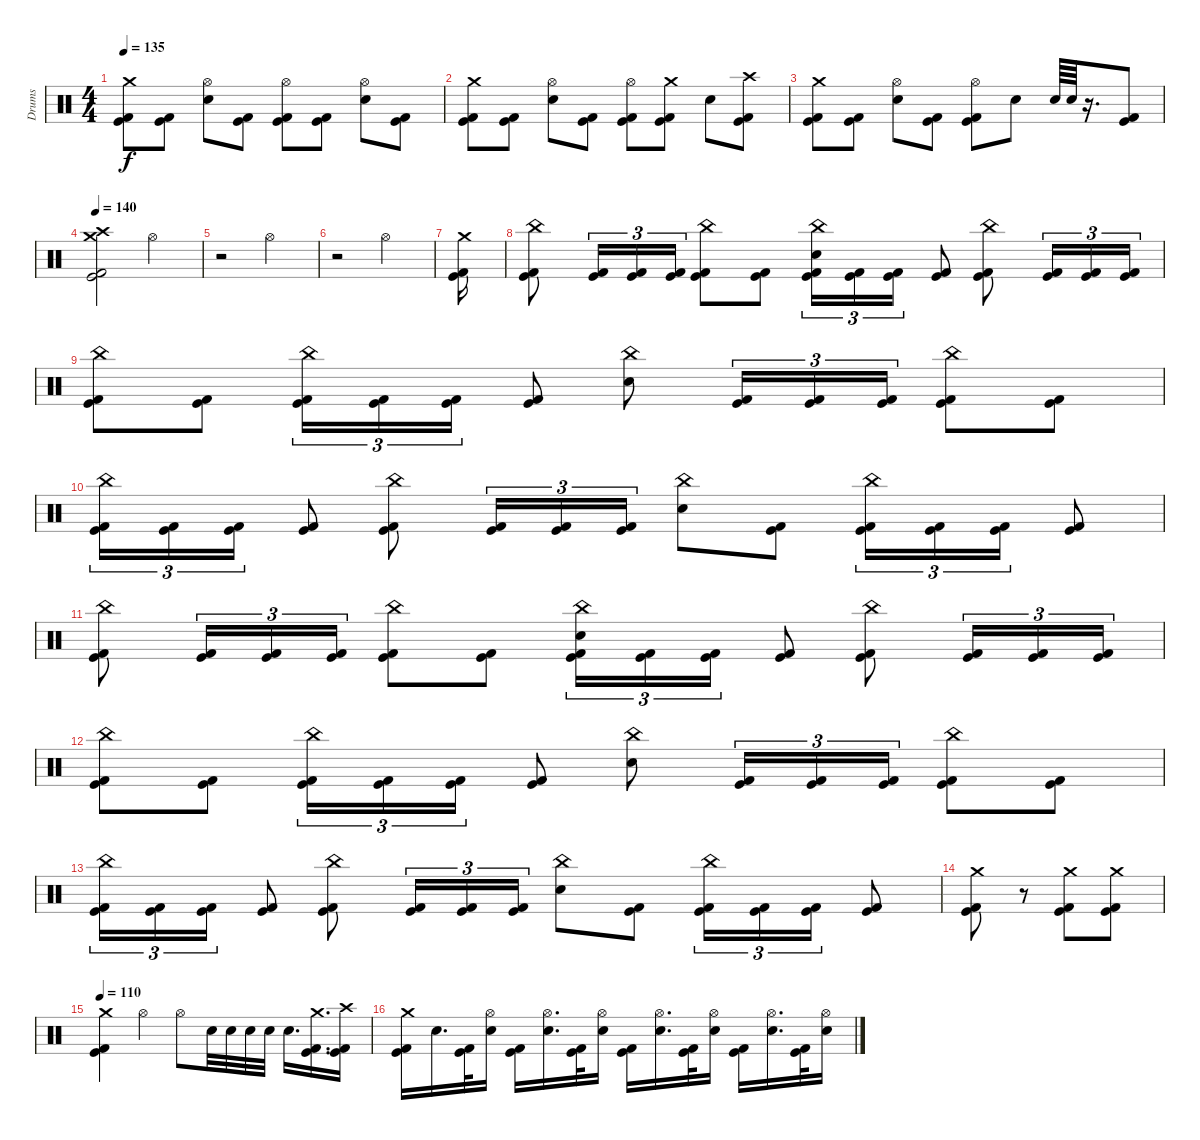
\track ("Drums" "Drums") {instrument percussion}
\staff {score}
\articulation defaults
\ts (4 4)
\tempo 135
\clef neutral
\ks c
("Crash medium (hit)" "Kick (hit)" "Kick (hit) 2").8{dy f} ("Kick (hit)" "Kick (hit) 2").8 ("Hi-Hat (open)" "Electric Snare (hit)").8 ("Kick (hit)" "Kick (hit) 2").8 ("Hi-Hat (open)" "Kick (hit)" "Kick (hit) 2").8 ("Kick (hit)" "Kick (hit) 2").8 ("Hi-Hat (open)" "Electric Snare (hit)").8 ("Kick (hit)" "Kick (hit) 2").8 |
("Crash medium (hit)" "Kick (hit)" "Kick (hit) 2").8 ("Kick (hit)" "Kick (hit) 2").8 ("Hi-Hat (open)" "Electric Snare (hit)").8 ("Kick (hit)" "Kick (hit) 2").8 ("Hi-Hat (open)" "Kick (hit)" "Kick (hit) 2").8 ("Crash medium (hit)" "Kick (hit)" "Kick (hit) 2").8 "Electric Snare (hit)".8 ("Crash high (hit)" "Kick (hit)" "Kick (hit) 2").8 |
("Crash medium (hit)" "Kick (hit)" "Kick (hit) 2").8 ("Kick (hit)" "Kick (hit) 2").8 ("Hi-Hat (open)" "Electric Snare (hit)").8 ("Kick (hit)" "Kick (hit) 2").8 ("Hi-Hat (open)" "Kick (hit)" "Kick (hit) 2").8 "Electric Snare (hit)".8 "Electric Snare (hit)".64 "Electric Snare (hit)".64 r.16{d} ("Kick (hit)" "Kick (hit) 2").8 |
\tempo 140
("Crash high (hit)" "Crash medium (hit)" "Kick (hit)" "Kick (hit) 2").2 "Hi-Hat (open)".2 |
r.2 "Hi-Hat (open)".2 |
r.2 "Hi-Hat (open)".2 |
("Crash medium (hit)" "Kick (hit)" "Kick (hit) 2").16 |
("China (hit)" "Kick (hit)" "Kick (hit) 2").8 ("Kick (hit)" "Kick (hit) 2").16{tu (3 2)} ("Kick (hit)" "Kick (hit) 2").16{tu (3 2)} ("Kick (hit)" "Kick (hit) 2").16{tu (3 2)} ("China (hit)" "Kick (hit)" "Kick (hit) 2").8 ("Kick (hit)" "Kick (hit) 2").8 ("China (hit)" "Electric Snare (hit)" "Kick (hit)" "Kick (hit) 2").16{tu (3 2)} ("Kick (hit)" "Kick (hit) 2").16{tu (3 2)} ("Kick (hit)" "Kick (hit) 2").16{tu (3 2)} ("Kick (hit)" "Kick (hit) 2").8 ("China (hit)" "Kick (hit)" "Kick (hit) 2").8 ("Kick (hit)" "Kick (hit) 2").16{tu (3 2)} ("Kick (hit)" "Kick (hit) 2").16{tu (3 2)} ("Kick (hit)" "Kick (hit) 2").16{tu (3 2)} |
("China (hit)" "Kick (hit)" "Kick (hit) 2").8 ("Kick (hit)" "Kick (hit) 2").8 ("China (hit)" "Kick (hit)" "Kick (hit) 2").16{tu (3 2)} ("Kick (hit)" "Kick (hit) 2").16{tu (3 2)} ("Kick (hit)" "Kick (hit) 2").16{tu (3 2)} ("Kick (hit)" "Kick (hit) 2").8 ("China (hit)" "Electric Snare (hit)").8 ("Kick (hit)" "Kick (hit) 2").16{tu (3 2)} ("Kick (hit)" "Kick (hit) 2").16{tu (3 2)} ("Kick (hit)" "Kick (hit) 2").16{tu (3 2)} ("China (hit)" "Kick (hit)" "Kick (hit) 2").8 ("Kick (hit)" "Kick (hit) 2").8 |
("China (hit)" "Kick (hit)" "Kick (hit) 2").16{tu (3 2)} ("Kick (hit)" "Kick (hit) 2").16{tu (3 2)} ("Kick (hit)" "Kick (hit) 2").16{tu (3 2)} ("Kick (hit)" "Kick (hit) 2").8 ("China (hit)" "Kick (hit)" "Kick (hit) 2").8 ("Kick (hit)" "Kick (hit) 2").16{tu (3 2)} ("Kick (hit)" "Kick (hit) 2").16{tu (3 2)} ("Kick (hit)" "Kick (hit) 2").16{tu (3 2)} ("China (hit)" "Electric Snare (hit)").8 ("Kick (hit)" "Kick (hit) 2").8 ("China (hit)" "Kick (hit)" "Kick (hit) 2").16{tu (3 2)} ("Kick (hit)" "Kick (hit) 2").16{tu (3 2)} ("Kick (hit)" "Kick (hit) 2").16{tu (3 2)} ("Kick (hit)" "Kick (hit) 2").8 |
("China (hit)" "Kick (hit)" "Kick (hit) 2").8 ("Kick (hit)" "Kick (hit) 2").16{tu (3 2)} ("Kick (hit)" "Kick (hit) 2").16{tu (3 2)} ("Kick (hit)" "Kick (hit) 2").16{tu (3 2)} ("China (hit)" "Kick (hit)" "Kick (hit) 2").8 ("Kick (hit)" "Kick (hit) 2").8 ("China (hit)" "Electric Snare (hit)" "Kick (hit)" "Kick (hit) 2").16{tu (3 2)} ("Kick (hit)" "Kick (hit) 2").16{tu (3 2)} ("Kick (hit)" "Kick (hit) 2").16{tu (3 2)} ("Kick (hit)" "Kick (hit) 2").8 ("China (hit)" "Kick (hit)" "Kick (hit) 2").8 ("Kick (hit)" "Kick (hit) 2").16{tu (3 2)} ("Kick (hit)" "Kick (hit) 2").16{tu (3 2)} ("Kick (hit)" "Kick (hit) 2").16{tu (3 2)} |
("China (hit)" "Kick (hit)" "Kick (hit) 2").8 ("Kick (hit)" "Kick (hit) 2").8 ("China (hit)" "Kick (hit)" "Kick (hit) 2").16{tu (3 2)} ("Kick (hit)" "Kick (hit) 2").16{tu (3 2)} ("Kick (hit)" "Kick (hit) 2").16{tu (3 2)} ("Kick (hit)" "Kick (hit) 2").8 ("China (hit)" "Electric Snare (hit)").8 ("Kick (hit)" "Kick (hit) 2").16{tu (3 2)} ("Kick (hit)" "Kick (hit) 2").16{tu (3 2)} ("Kick (hit)" "Kick (hit) 2").16{tu (3 2)} ("China (hit)" "Kick (hit)" "Kick (hit) 2").8 ("Kick (hit)" "Kick (hit) 2").8 |
("China (hit)" "Kick (hit)" "Kick (hit) 2").16{tu (3 2)} ("Kick (hit)" "Kick (hit) 2").16{tu (3 2)} ("Kick (hit)" "Kick (hit) 2").16{tu (3 2)} ("Kick (hit)" "Kick (hit) 2").8 ("China (hit)" "Kick (hit)" "Kick (hit) 2").8 ("Kick (hit)" "Kick (hit) 2").16{tu (3 2)} ("Kick (hit)" "Kick (hit) 2").16{tu (3 2)} ("Kick (hit)" "Kick (hit) 2").16{tu (3 2)} ("China (hit)" "Electric Snare (hit)").8 ("Kick (hit)" "Kick (hit) 2").8 ("China (hit)" "Kick (hit)" "Kick (hit) 2").16{tu (3 2)} ("Kick (hit)" "Kick (hit) 2").16{tu (3 2)} ("Kick (hit)" "Kick (hit) 2").16{tu (3 2)} ("Kick (hit)" "Kick (hit) 2").8 |
("Crash medium (hit)" "Kick (hit)" "Kick (hit) 2").8 r.8 ("Crash medium (hit)" "Kick (hit)" "Kick (hit) 2").8 ("Crash medium (hit)" "Kick (hit)" "Kick (hit) 2").8 |
\tempo 110
("Crash medium (hit)" "Kick (hit)" "Kick (hit) 2").4 "Hi-Hat (open)".4 "Hi-Hat (open)".8 "Electric Snare (hit)".32 "Electric Snare (hit)".32 "Electric Snare (hit)".32 "Electric Snare (hit)".32 "Electric Snare (hit)".16{d} ("Crash medium (hit)" "Kick (hit)" "Kick (hit) 2").16{d} ("Crash high (hit)" "Kick (hit)" "Kick (hit) 2").16 |
("Crash medium (hit)" "Kick (hit)" "Kick (hit) 2").16 "Electric Snare (hit)".16{d} ("Kick (hit)" "Kick (hit) 2").32 ("Hi-Hat (open)" "Electric Snare (hit)").16 ("Kick (hit)" "Kick (hit) 2").16 ("Hi-Hat (open)" "Electric Snare (hit)").16{d} ("Kick (hit)" "Kick (hit) 2").32 ("Hi-Hat (open)" "Electric Snare (hit)").16 ("Kick (hit)" "Kick (hit) 2").16 ("Hi-Hat (open)" "Electric Snare (hit)").16{d} ("Kick (hit)" "Kick (hit) 2").32 ("Hi-Hat (open)" "Electric Snare (hit)").16 ("Kick (hit)" "Kick (hit) 2").16 ("Hi-Hat (open)" "Electric Snare (hit)").16{d} ("Kick (hit)" "Kick (hit) 2").32 ("Hi-Hat (open)" "Electric Snare (hit)").16
